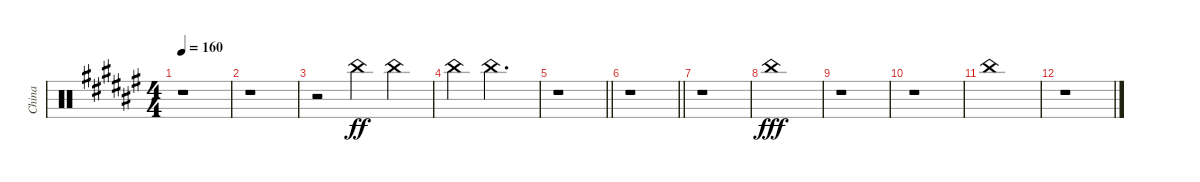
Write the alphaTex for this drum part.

\track ("China" "China") {instrument percussion}
\staff {score}
\articulation defaults
\ts (4 4)
\tempo 160
\clef neutral
\ks d#minor
r.1{dy ff} |
r.1 |
r.2 "China (hit)".4 "China (hit)".4 |
"China (hit)".4 "China (hit)".2{d} |
\barLineRight lightlight
r.1 |
\barLineRight lightlight
r.1 |
r.1 |
"China (hit)".1{dy fff} |
r.1 |
r.1 |
"China (hit)".1 |
r.1
